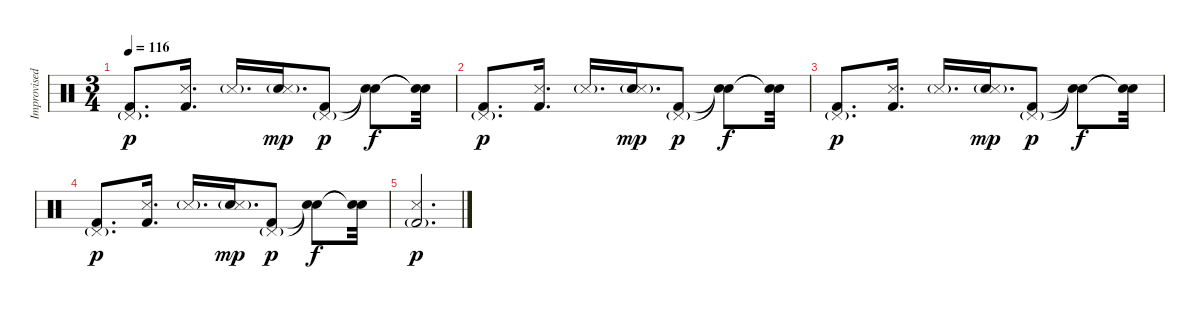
\track ("Improvised Drums" "Improvised") {instrument percussion}
\staff {score}
\articulation defaults
\ts (3 4)
\tempo 116
\clef neutral
\ks c
("Pedal Hi-Hat (hit)"{g} "Kick (hit) 2").8{d dy p} ("Metronome (hit)" "Kick (hit) 2").16{d} "Metronome (hit)"{g}.16{d} ("Electric Snare (hit)"{g} "Metronome (hit)").16{d dy mp} ("Pedal Hi-Hat (hit)"{g} "Kick (hit) 2").8{dy p} ("Snare (hit)"{t} "Snare (hit)"{t}).8{dy f} ("Snare (hit)"{t} "Snare (hit)"{t}).32 |
("Pedal Hi-Hat (hit)"{g} "Kick (hit) 2").8{d dy p} ("Metronome (hit)" "Kick (hit) 2").16{d} "Metronome (hit)"{g}.16{d} ("Electric Snare (hit)"{g} "Metronome (hit)").16{d dy mp} ("Pedal Hi-Hat (hit)"{g} "Kick (hit) 2").8{dy p} ("Snare (hit)"{t} "Snare (hit)"{t}).8{dy f} ("Snare (hit)"{t} "Snare (hit)"{t}).32 |
("Pedal Hi-Hat (hit)"{g} "Kick (hit) 2").8{d dy p} ("Metronome (hit)" "Kick (hit) 2").16{d} "Metronome (hit)"{g}.16{d} ("Electric Snare (hit)"{g} "Metronome (hit)").16{d dy mp} ("Pedal Hi-Hat (hit)"{g} "Kick (hit) 2").8{dy p} ("Snare (hit)"{t} "Snare (hit)"{t}).8{dy f} ("Snare (hit)"{t} "Snare (hit)"{t}).32 |
("Pedal Hi-Hat (hit)"{g} "Kick (hit) 2").8{d dy p} ("Metronome (hit)" "Kick (hit) 2").16{d} "Metronome (hit)"{g}.16{d} ("Electric Snare (hit)"{g} "Metronome (hit)").16{d dy mp} ("Pedal Hi-Hat (hit)"{g} "Kick (hit) 2").8{dy p} ("Snare (hit)"{t} "Snare (hit)"{t}).8{dy f} ("Snare (hit)"{t} "Snare (hit)"{t}).32 |
("Metronome (hit)" "Kick (hit) 2"{g}).2{d dy p}
